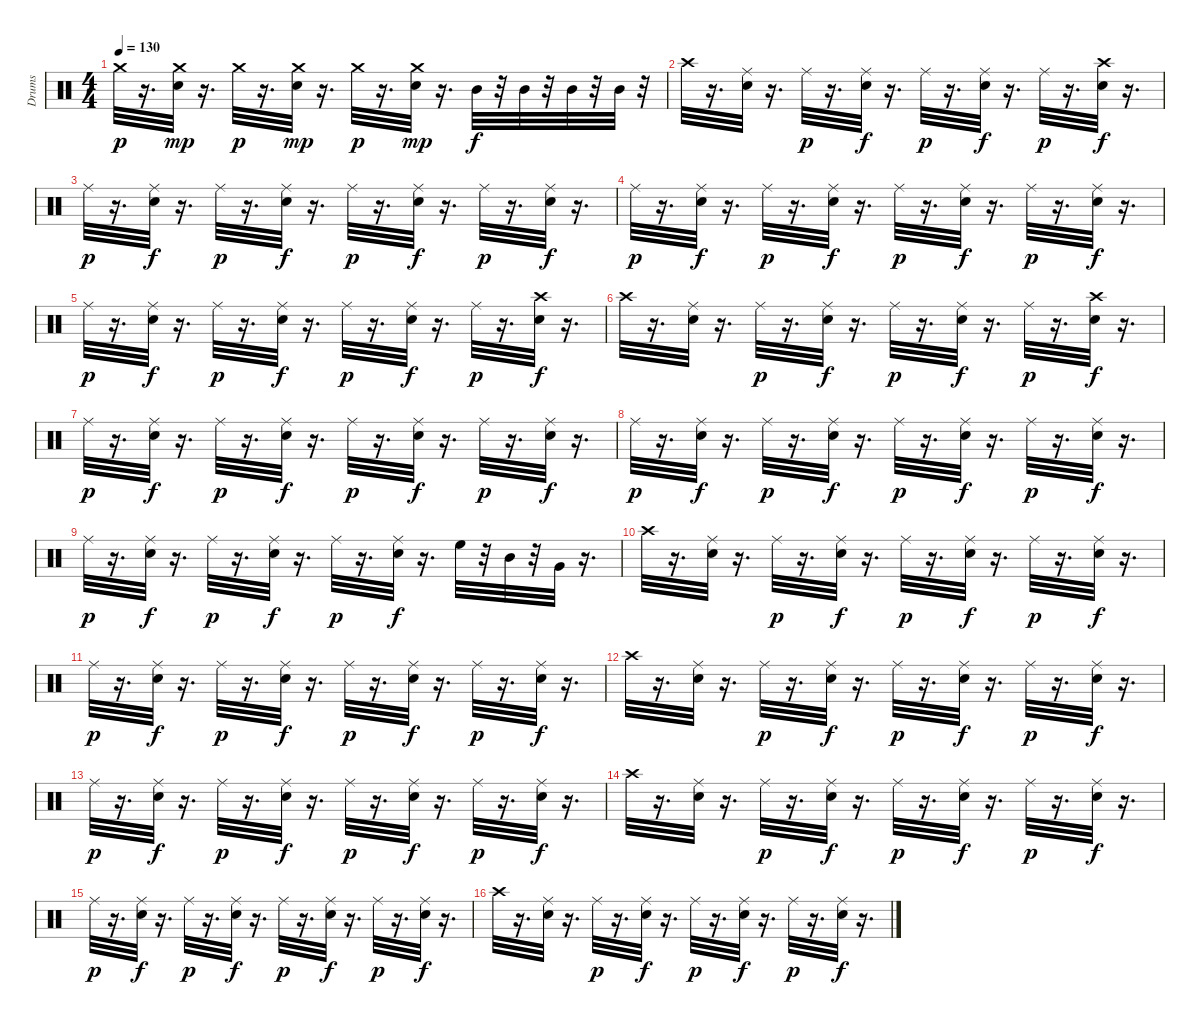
\track ("Drums" "Drums") {instrument percussion}
\staff {score}
\articulation defaults
\ts (4 4)
\tempo 130
\clef neutral
\ks c "Crash medium (hit)".32{dy p}
r.16{d} ("Snare (hit) 2" "Crash medium (hit)").32{dy mp} r.16{d} "Crash medium (hit)".32{dy p} r.16{d} ("Snare (hit) 2" "Crash medium (hit)").32{dy mp} r.16{d} "Crash medium (hit)".32{dy p} r.16{d} ("Snare (hit) 2" "Crash medium (hit)").32{dy mp} r.16{d} "Mid Tom (hit)".32{dy f} r.32 "Mid Tom (hit)".32 r.32 "Mid Tom (hit)".32 r.32 "Mid Tom (hit)".32 r.32 |
"Crash high (hit)".32 r.16{d} ("Ride (middle)" "Snare (hit) 2").32 r.16{d} "Ride (middle)".32{dy p} r.16{d} ("Snare (hit) 2" "Ride (middle)").32{dy f} r.16{d} "Ride (middle)".32{dy p} r.16{d} ("Snare (hit) 2" "Ride (middle)").32{dy f} r.16{d} "Ride (middle)".32{dy p} r.16{d} ("Crash high (hit)" "Snare (hit) 2").32{dy f} r.16{d} |
"Ride (middle)".32{dy p} r.16{d} ("Snare (hit) 2" "Ride (middle)").32{dy f} r.16{d} "Ride (middle)".32{dy p} r.16{d} ("Snare (hit) 2" "Ride (middle)").32{dy f} r.16{d} "Ride (middle)".32{dy p} r.16{d} ("Snare (hit) 2" "Ride (middle)").32{dy f} r.16{d} "Ride (middle)".32{dy p} r.16{d} ("Snare (hit) 2" "Ride (middle)").32{dy f} r.16{d} |
"Ride (middle)".32{dy p} r.16{d} ("Snare (hit) 2" "Ride (middle)").32{dy f} r.16{d} "Ride (middle)".32{dy p} r.16{d} ("Snare (hit) 2" "Ride (middle)").32{dy f} r.16{d} "Ride (middle)".32{dy p} r.16{d} ("Snare (hit) 2" "Ride (middle)").32{dy f} r.16{d} "Ride (middle)".32{dy p} r.16{d} ("Snare (hit) 2" "Ride (middle)").32{dy f} r.16{d} |
"Ride (middle)".32{dy p} r.16{d} ("Snare (hit) 2" "Ride (middle)").32{dy f} r.16{d} "Ride (middle)".32{dy p} r.16{d} ("Snare (hit) 2" "Ride (middle)").32{dy f} r.16{d} "Ride (middle)".32{dy p} r.16{d} ("Snare (hit) 2" "Ride (middle)").32{dy f} r.16{d} "Ride (middle)".32{dy p} r.16{d} ("Crash high (hit)" "Snare (hit) 2").32{dy f} r.16{d} |
"Crash high (hit)".32 r.16{d} ("Ride (middle)" "Snare (hit) 2").32 r.16{d} "Ride (middle)".32{dy p} r.16{d} ("Snare (hit) 2" "Ride (middle)").32{dy f} r.16{d} "Ride (middle)".32{dy p} r.16{d} ("Snare (hit) 2" "Ride (middle)").32{dy f} r.16{d} "Ride (middle)".32{dy p} r.16{d} ("Crash high (hit)" "Snare (hit) 2").32{dy f} r.16{d} |
"Ride (middle)".32{dy p} r.16{d} ("Snare (hit) 2" "Ride (middle)").32{dy f} r.16{d} "Ride (middle)".32{dy p} r.16{d} ("Snare (hit) 2" "Ride (middle)").32{dy f} r.16{d} "Ride (middle)".32{dy p} r.16{d} ("Snare (hit) 2" "Ride (middle)").32{dy f} r.16{d} "Ride (middle)".32{dy p} r.16{d} ("Snare (hit) 2" "Ride (middle)").32{dy f} r.16{d} |
"Ride (middle)".32{dy p} r.16{d} ("Snare (hit) 2" "Ride (middle)").32{dy f} r.16{d} "Ride (middle)".32{dy p} r.16{d} ("Snare (hit) 2" "Ride (middle)").32{dy f} r.16{d} "Ride (middle)".32{dy p} r.16{d} ("Snare (hit) 2" "Ride (middle)").32{dy f} r.16{d} "Ride (middle)".32{dy p} r.16{d} ("Snare (hit) 2" "Ride (middle)").32{dy f} r.16{d} |
"Ride (middle)".32{dy p} r.16{d} ("Snare (hit) 2" "Ride (middle)").32{dy f} r.16{d} "Ride (middle)".32{dy p} r.16{d} ("Snare (hit) 2" "Ride (middle)").32{dy f} r.16{d} "Ride (middle)".32{dy p} r.16{d} ("Snare (hit) 2" "Ride (middle)").32{dy f} r.16{d} "High Floor Tom (hit)".32 r.32 "Mid Tom (hit)".32 r.32 "Very Low Tom (hit)".32 r.16{d} |
"Crash high (hit)".32 r.16{d} ("Snare (hit) 2" "Ride (middle)").32 r.16{d} "Ride (middle)".32{dy p} r.16{d} ("Snare (hit) 2" "Ride (middle)").32{dy f} r.16{d} "Ride (middle)".32{dy p} r.16{d} ("Snare (hit) 2" "Ride (middle)").32{dy f} r.16{d} "Ride (middle)".32{dy p} r.16{d} ("Snare (hit) 2" "Ride (middle)").32{dy f} r.16{d} |
"Ride (middle)".32{dy p} r.16{d} ("Snare (hit) 2" "Ride (middle)").32{dy f} r.16{d} "Ride (middle)".32{dy p} r.16{d} ("Snare (hit) 2" "Ride (middle)").32{dy f} r.16{d} "Ride (middle)".32{dy p} r.16{d} ("Snare (hit) 2" "Ride (middle)").32{dy f} r.16{d} "Ride (middle)".32{dy p} r.16{d} ("Snare (hit) 2" "Ride (middle)").32{dy f} r.16{d} |
"Crash high (hit)".32 r.16{d} ("Snare (hit) 2" "Ride (middle)").32 r.16{d} "Ride (middle)".32{dy p} r.16{d} ("Snare (hit) 2" "Ride (middle)").32{dy f} r.16{d} "Ride (middle)".32{dy p} r.16{d} ("Snare (hit) 2" "Ride (middle)").32{dy f} r.16{d} "Ride (middle)".32{dy p} r.16{d} ("Snare (hit) 2" "Ride (middle)").32{dy f} r.16{d} |
"Ride (middle)".32{dy p} r.16{d} ("Snare (hit) 2" "Ride (middle)").32{dy f} r.16{d} "Ride (middle)".32{dy p} r.16{d} ("Snare (hit) 2" "Ride (middle)").32{dy f} r.16{d} "Ride (middle)".32{dy p} r.16{d} ("Snare (hit) 2" "Ride (middle)").32{dy f} r.16{d} "Ride (middle)".32{dy p} r.16{d} ("Snare (hit) 2" "Ride (middle)").32{dy f} r.16{d} |
"Crash high (hit)".32 r.16{d} ("Snare (hit) 2" "Ride (middle)").32 r.16{d} "Ride (middle)".32{dy p} r.16{d} ("Snare (hit) 2" "Ride (middle)").32{dy f} r.16{d} "Ride (middle)".32{dy p} r.16{d} ("Snare (hit) 2" "Ride (middle)").32{dy f} r.16{d} "Ride (middle)".32{dy p} r.16{d} ("Snare (hit) 2" "Ride (middle)").32{dy f} r.16{d} |
"Ride (middle)".32{dy p} r.16{d} ("Snare (hit) 2" "Ride (middle)").32{dy f} r.16{d} "Ride (middle)".32{dy p} r.16{d} ("Snare (hit) 2" "Ride (middle)").32{dy f} r.16{d} "Ride (middle)".32{dy p} r.16{d} ("Snare (hit) 2" "Ride (middle)").32{dy f} r.16{d} "Ride (middle)".32{dy p} r.16{d} ("Snare (hit) 2" "Ride (middle)").32{dy f} r.16{d} |
"Crash high (hit)".32 r.16{d} ("Snare (hit) 2" "Ride (middle)").32 r.16{d} "Ride (middle)".32{dy p} r.16{d} ("Snare (hit) 2" "Ride (middle)").32{dy f} r.16{d} "Ride (middle)".32{dy p} r.16{d} ("Snare (hit) 2" "Ride (middle)").32{dy f} r.16{d} "Ride (middle)".32{dy p} r.16{d} ("Snare (hit) 2" "Ride (middle)").32{dy f} r.16{d}
